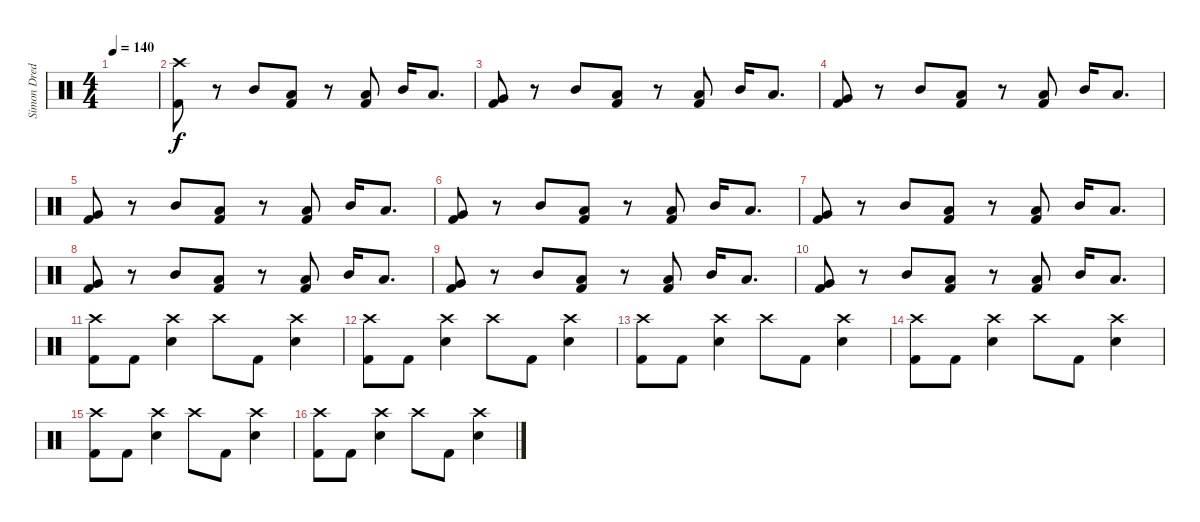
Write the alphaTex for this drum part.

\track ("Simon Dredo" "Simon Dred") {instrument percussion}
\staff {score}
\articulation defaults
\ts (4 4)
\tempo 140
\clef neutral
\ks c
|
("Crash high (hit)" "Kick (hit) 2").8 r.8 "Mid Tom (hit)".8 ("Low Tom (hit)" "Kick (hit) 2").8 r.8 ("Low Tom (hit)" "Kick (hit) 2").8 "Mid Tom (hit)".16 "Low Tom (hit)".8{d} |
("Very Low Tom (hit)" "Kick (hit) 2").8 r.8 "Mid Tom (hit)".8 ("Low Tom (hit)" "Kick (hit) 2").8 r.8 ("Low Tom (hit)" "Kick (hit) 2").8 "Mid Tom (hit)".16 "Low Tom (hit)".8{d} |
("Very Low Tom (hit)" "Kick (hit) 2").8 r.8 "Mid Tom (hit)".8 ("Low Tom (hit)" "Kick (hit) 2").8 r.8 ("Low Tom (hit)" "Kick (hit) 2").8 "Mid Tom (hit)".16 "Low Tom (hit)".8{d} |
("Very Low Tom (hit)" "Kick (hit) 2").8 r.8 "Mid Tom (hit)".8 ("Low Tom (hit)" "Kick (hit) 2").8 r.8 ("Low Tom (hit)" "Kick (hit) 2").8 "Mid Tom (hit)".16 "Low Tom (hit)".8{d} |
("Very Low Tom (hit)" "Kick (hit) 2").8 r.8 "Mid Tom (hit)".8 ("Low Tom (hit)" "Kick (hit) 2").8 r.8 ("Low Tom (hit)" "Kick (hit) 2").8 "Mid Tom (hit)".16 "Low Tom (hit)".8{d} |
("Very Low Tom (hit)" "Kick (hit) 2").8 r.8 "Mid Tom (hit)".8 ("Low Tom (hit)" "Kick (hit) 2").8 r.8 ("Low Tom (hit)" "Kick (hit) 2").8 "Mid Tom (hit)".16 "Low Tom (hit)".8{d} |
("Very Low Tom (hit)" "Kick (hit) 2").8 r.8 "Mid Tom (hit)".8 ("Low Tom (hit)" "Kick (hit) 2").8 r.8 ("Low Tom (hit)" "Kick (hit) 2").8 "Mid Tom (hit)".16 "Low Tom (hit)".8{d} |
("Very Low Tom (hit)" "Kick (hit) 2").8 r.8 "Mid Tom (hit)".8 ("Low Tom (hit)" "Kick (hit) 2").8 r.8 ("Low Tom (hit)" "Kick (hit) 2").8 "Mid Tom (hit)".16 "Low Tom (hit)".8{d} |
("Very Low Tom (hit)" "Kick (hit) 2").8 r.8 "Mid Tom (hit)".8 ("Low Tom (hit)" "Kick (hit) 2").8 r.8 ("Low Tom (hit)" "Kick (hit) 2").8 "Mid Tom (hit)".16 "Low Tom (hit)".8{d} |
("Crash high (hit)" "Kick (hit) 2").8 "Kick (hit) 2".8 ("Crash high (hit)" "Electric Snare (hit)").4 "Crash high (hit)".8 "Kick (hit) 2".8 ("Crash high (hit)" "Electric Snare (hit)").4 |
("Crash high (hit)" "Kick (hit) 2").8 "Kick (hit) 2".8 ("Crash high (hit)" "Electric Snare (hit)").4 "Crash high (hit)".8 "Kick (hit) 2".8 ("Crash high (hit)" "Electric Snare (hit)").4 |
("Crash high (hit)" "Kick (hit) 2").8 "Kick (hit) 2".8 ("Crash high (hit)" "Electric Snare (hit)").4 "Crash high (hit)".8 "Kick (hit) 2".8 ("Crash high (hit)" "Electric Snare (hit)").4 |
("Crash high (hit)" "Kick (hit) 2").8 "Kick (hit) 2".8 ("Crash high (hit)" "Electric Snare (hit)").4 "Crash high (hit)".8 "Kick (hit) 2".8 ("Crash high (hit)" "Electric Snare (hit)").4 |
("Crash high (hit)" "Kick (hit) 2").8 "Kick (hit) 2".8 ("Crash high (hit)" "Electric Snare (hit)").4 "Crash high (hit)".8 "Kick (hit) 2".8 ("Crash high (hit)" "Electric Snare (hit)").4 |
("Crash high (hit)" "Kick (hit) 2").8 "Kick (hit) 2".8 ("Crash high (hit)" "Electric Snare (hit)").4 "Crash high (hit)".8 "Kick (hit) 2".8 ("Crash high (hit)" "Electric Snare (hit)").4
